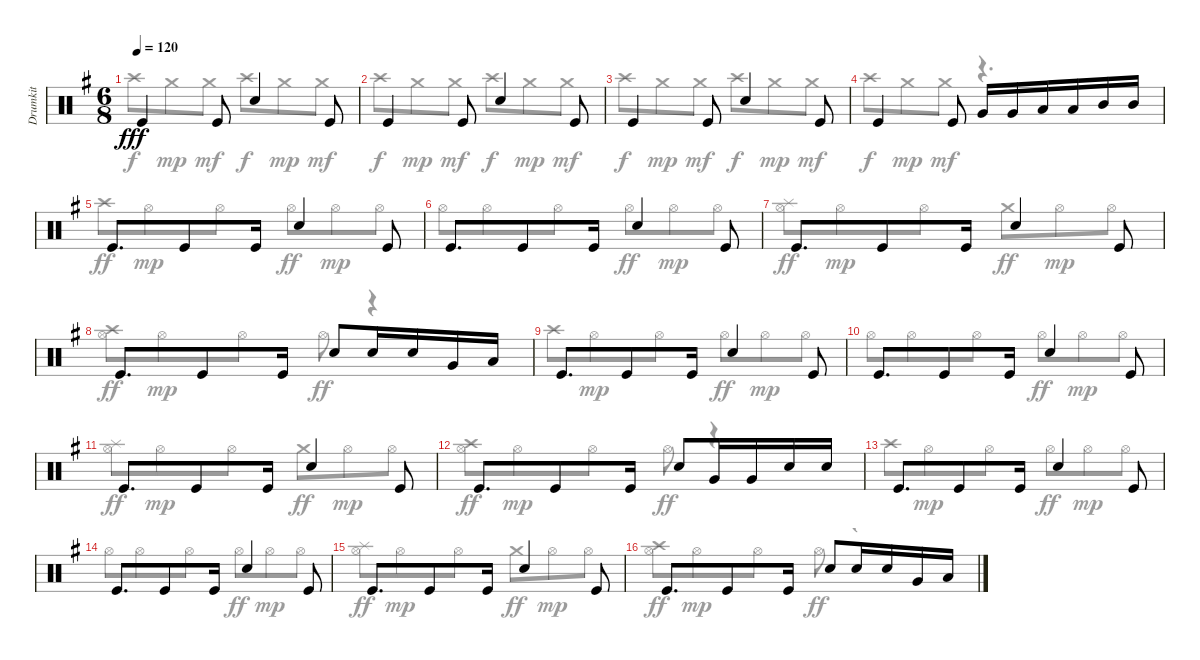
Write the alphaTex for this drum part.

\track ("Drumkit" "Drumkit") {instrument percussion}
\staff {score}
\articulation defaults
\voice
\ts (6 8)
\tempo 120
\clef neutral
\ks eminor "Kick (hit)".4{dy fff} "Kick (hit)".8 "Snare (hit) 2".4 "Kick (hit)".8
|
"Kick (hit)".4 "Kick (hit)".8 "Snare (hit) 2".4 "Kick (hit)".8 |
"Kick (hit)".4 "Kick (hit)".8 "Snare (hit) 2".4 "Kick (hit)".8 |
"Kick (hit)".4 "Kick (hit)".8 "Very Low Tom (hit)".16 "Very Low Tom (hit)".16 "Low Tom (hit)".16 "Low Tom (hit)".16 "Mid Tom (hit)".16 "Mid Tom (hit)".16 |
"Kick (hit)".8{d} "Kick (hit)".8 "Kick (hit)".16 "Snare (hit) 2".4 "Kick (hit)".8 |
"Kick (hit)".8{d} "Kick (hit)".8 "Kick (hit)".16 "Snare (hit) 2".4 "Kick (hit)".8 |
"Kick (hit)".8{d} "Kick (hit)".8 "Kick (hit)".16 "Snare (hit) 2".4 "Kick (hit)".8 |
"Kick (hit)".8{d} "Kick (hit)".8 "Kick (hit)".16 "Snare (hit) 2".8 "Snare (hit) 2".16 "Snare (hit) 2".16 "Very Low Tom (hit)".16 "Low Floor Tom (hit)".16 |
"Kick (hit)".8{d} "Kick (hit)".8 "Kick (hit)".16 "Snare (hit) 2".4 "Kick (hit)".8 |
"Kick (hit)".8{d} "Kick (hit)".8 "Kick (hit)".16 "Snare (hit) 2".4 "Kick (hit)".8 |
"Kick (hit)".8{d} "Kick (hit)".8 "Kick (hit)".16 "Snare (hit) 2".4 "Kick (hit)".8 |
"Kick (hit)".8{d} "Kick (hit)".8 "Kick (hit)".16 "Snare (hit) 2".8 "Very Low Tom (hit)".16 "Very Low Tom (hit)".16 "Snare (hit) 2".16 "Snare (hit) 2".16 |
"Kick (hit)".8{d} "Kick (hit)".8 "Kick (hit)".16 "Snare (hit) 2".4 "Kick (hit)".8 |
"Kick (hit)".8{d} "Kick (hit)".8 "Kick (hit)".16 "Snare (hit) 2".4 "Kick (hit)".8 |
"Kick (hit)".8{d} "Kick (hit)".8 "Kick (hit)".16 "Snare (hit) 2".4 "Kick (hit)".8 |
"Kick (hit)".8{d} "Kick (hit)".8 "Kick (hit)".16 "Snare (hit) 2".8 "Snare (hit) 2".16 "Snare (hit) 2".16 "Very Low Tom (hit)".16 "Low Floor Tom (hit)".16
\voice
\clef neutral
\ottava regular
\simile none
\ks eminor "Crash high (hit)".8{dy f} "Crash medium (hit)".8{dy mp} "Crash medium (hit)".8{dy mf} "Crash high (hit)".8{dy f} "Crash medium (hit)".8{dy mp} "Crash medium (hit)".8{dy mf}
|
"Crash high (hit)".8{dy f} "Crash medium (hit)".8{dy mp} "Crash medium (hit)".8{dy mf} "Crash high (hit)".8{dy f} "Crash medium (hit)".8{dy mp} "Crash medium (hit)".8{dy mf} |
"Crash high (hit)".8{dy f} "Crash medium (hit)".8{dy mp} "Crash medium (hit)".8{dy mf} "Crash high (hit)".8{dy f} "Crash medium (hit)".8{dy mp} "Crash medium (hit)".8{dy mf} |
"Crash high (hit)".8{dy f} "Crash medium (hit)".8{dy mp} "Crash medium (hit)".8{dy mf} r.4{d} |
"Crash high (hit)".8{dy ff} "Hi-Hat (open)".8{dy mp} "Hi-Hat (open)".8 "Hi-Hat (open)".8{dy ff} "Hi-Hat (open)".8{dy mp} "Hi-Hat (open)".8 |
"Hi-Hat (open)".8 "Hi-Hat (open)".8 "Hi-Hat (open)".8 "Hi-Hat (open)".8{dy ff} "Hi-Hat (open)".8{dy mp} "Hi-Hat (open)".8 |
("Splash (hit)" "Hi-Hat (open)").8{dy ff} "Hi-Hat (open)".8{dy mp} "Hi-Hat (open)".8 "Crash medium (hit)".8{dy ff} "Hi-Hat (open)".8{dy mp} "Hi-Hat (open)".8 |
("Crash high (hit)" "Hi-Hat (open)").8{dy ff} "Hi-Hat (open)".8{dy mp} "Hi-Hat (open)".8 "Hi-Hat (open)".8{dy ff} r.4 |
"Crash high (hit)".8 "Hi-Hat (open)".8{dy mp} "Hi-Hat (open)".8 "Hi-Hat (open)".8{dy ff} "Hi-Hat (open)".8{dy mp} "Hi-Hat (open)".8 |
"Hi-Hat (open)".8 "Hi-Hat (open)".8 "Hi-Hat (open)".8 "Hi-Hat (open)".8{dy ff} "Hi-Hat (open)".8{dy mp} "Hi-Hat (open)".8 |
("Splash (hit)" "Hi-Hat (open)").8{dy ff} "Hi-Hat (open)".8{dy mp} "Hi-Hat (open)".8 "Crash medium (hit)".8{dy ff} "Hi-Hat (open)".8{dy mp} "Hi-Hat (open)".8 |
("Crash high (hit)" "Hi-Hat (open)").8{dy ff} "Hi-Hat (open)".8{dy mp} "Hi-Hat (open)".8 "Hi-Hat (open)".8{dy ff} r.4 |
"Crash high (hit)".8 "Hi-Hat (open)".8{dy mp} "Hi-Hat (open)".8 "Hi-Hat (open)".8{dy ff} "Hi-Hat (open)".8{dy mp} "Hi-Hat (open)".8 |
"Hi-Hat (open)".8 "Hi-Hat (open)".8 "Hi-Hat (open)".8 "Hi-Hat (open)".8{dy ff} "Hi-Hat (open)".8{dy mp} "Hi-Hat (open)".8 |
("Splash (hit)" "Hi-Hat (open)").8{dy ff} "Hi-Hat (open)".8{dy mp} "Hi-Hat (open)".8 "Crash medium (hit)".8{dy ff} "Hi-Hat (open)".8{dy mp} "Hi-Hat (open)".8 |
("Crash high (hit)" "Hi-Hat (open)").8{dy ff} "Hi-Hat (open)".8{dy mp} "Hi-Hat (open)".8 "Hi-Hat (open)".8{dy ff} r.4
